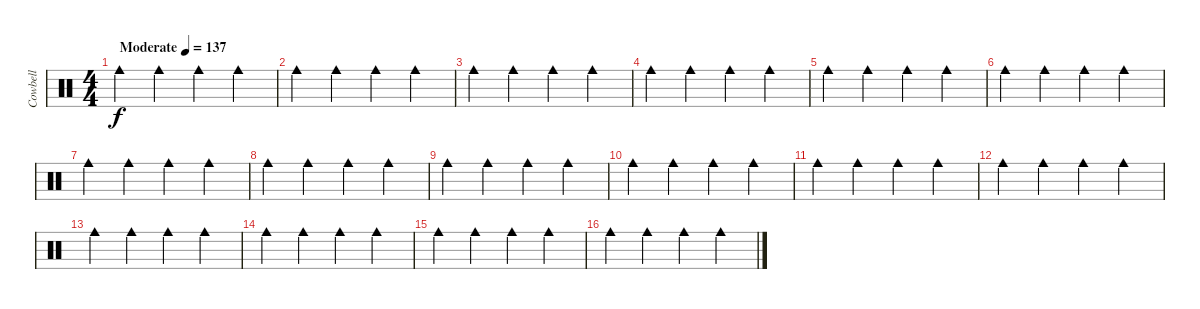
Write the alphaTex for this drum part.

\track ("Cowbell" "Cowbell") {instrument percussion}
\staff {score}
\articulation defaults
\ts (4 4)
\tempo (137 "Moderate")
\clef neutral
\ks c "Cowbell medium (hit)".4{dy f} "Cowbell medium (hit)".4 "Cowbell medium (hit)".4 "Cowbell medium (hit)".4
|
"Cowbell medium (hit)".4 "Cowbell medium (hit)".4 "Cowbell medium (hit)".4 "Cowbell medium (hit)".4 |
"Cowbell medium (hit)".4 "Cowbell medium (hit)".4 "Cowbell medium (hit)".4 "Cowbell medium (hit)".4 |
"Cowbell medium (hit)".4 "Cowbell medium (hit)".4 "Cowbell medium (hit)".4 "Cowbell medium (hit)".4 |
"Cowbell medium (hit)".4 "Cowbell medium (hit)".4 "Cowbell medium (hit)".4 "Cowbell medium (hit)".4 |
"Cowbell medium (hit)".4 "Cowbell medium (hit)".4 "Cowbell medium (hit)".4 "Cowbell medium (hit)".4 |
"Cowbell medium (hit)".4 "Cowbell medium (hit)".4 "Cowbell medium (hit)".4 "Cowbell medium (hit)".4 |
"Cowbell medium (hit)".4 "Cowbell medium (hit)".4 "Cowbell medium (hit)".4 "Cowbell medium (hit)".4 |
"Cowbell medium (hit)".4 "Cowbell medium (hit)".4 "Cowbell medium (hit)".4 "Cowbell medium (hit)".4 |
"Cowbell medium (hit)".4 "Cowbell medium (hit)".4 "Cowbell medium (hit)".4 "Cowbell medium (hit)".4 |
"Cowbell medium (hit)".4 "Cowbell medium (hit)".4 "Cowbell medium (hit)".4 "Cowbell medium (hit)".4 |
"Cowbell medium (hit)".4 "Cowbell medium (hit)".4 "Cowbell medium (hit)".4 "Cowbell medium (hit)".4 |
"Cowbell medium (hit)".4 "Cowbell medium (hit)".4 "Cowbell medium (hit)".4 "Cowbell medium (hit)".4 |
"Cowbell medium (hit)".4 "Cowbell medium (hit)".4 "Cowbell medium (hit)".4 "Cowbell medium (hit)".4 |
"Cowbell medium (hit)".4 "Cowbell medium (hit)".4 "Cowbell medium (hit)".4 "Cowbell medium (hit)".4 |
"Cowbell medium (hit)".4 "Cowbell medium (hit)".4 "Cowbell medium (hit)".4 "Cowbell medium (hit)".4
